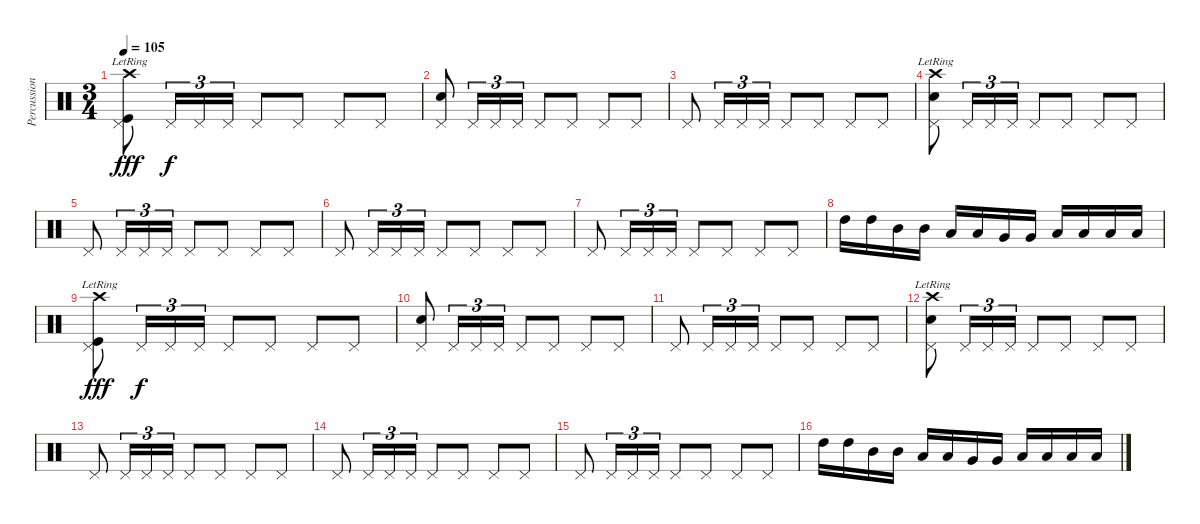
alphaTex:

\track ("Percussion" "Percussion") {instrument percussion}
\staff {score}
\articulation defaults
\ts (3 4)
\tempo 105
\clef neutral
\ks c
("Crash high (hit)"{lr} "Kick (hit)" "Pedal Hi-Hat (hit)").8{dy fff} "Pedal Hi-Hat (hit)".16{tu (3 2) dy f} "Pedal Hi-Hat (hit)".16{tu (3 2)} "Pedal Hi-Hat (hit)".16{tu (3 2)} "Pedal Hi-Hat (hit)".8 "Pedal Hi-Hat (hit)".8 "Pedal Hi-Hat (hit)".8 "Pedal Hi-Hat (hit)".8 |
("Snare (hit) 2" "Pedal Hi-Hat (hit)").8 "Pedal Hi-Hat (hit)".16{tu (3 2)} "Pedal Hi-Hat (hit)".16{tu (3 2)} "Pedal Hi-Hat (hit)".16{tu (3 2)} "Pedal Hi-Hat (hit)".8 "Pedal Hi-Hat (hit)".8 "Pedal Hi-Hat (hit)".8 "Pedal Hi-Hat (hit)".8 |
"Pedal Hi-Hat (hit)".8 "Pedal Hi-Hat (hit)".16{tu (3 2)} "Pedal Hi-Hat (hit)".16{tu (3 2)} "Pedal Hi-Hat (hit)".16{tu (3 2)} "Pedal Hi-Hat (hit)".8 "Pedal Hi-Hat (hit)".8 "Pedal Hi-Hat (hit)".8 "Pedal Hi-Hat (hit)".8 |
("Crash high (hit)"{lr} "Snare (hit) 2" "Pedal Hi-Hat (hit)").8 "Pedal Hi-Hat (hit)".16{tu (3 2)} "Pedal Hi-Hat (hit)".16{tu (3 2)} "Pedal Hi-Hat (hit)".16{tu (3 2)} "Pedal Hi-Hat (hit)".8 "Pedal Hi-Hat (hit)".8 "Pedal Hi-Hat (hit)".8 "Pedal Hi-Hat (hit)".8 |
"Pedal Hi-Hat (hit)".8 "Pedal Hi-Hat (hit)".16{tu (3 2)} "Pedal Hi-Hat (hit)".16{tu (3 2)} "Pedal Hi-Hat (hit)".16{tu (3 2)} "Pedal Hi-Hat (hit)".8 "Pedal Hi-Hat (hit)".8 "Pedal Hi-Hat (hit)".8 "Pedal Hi-Hat (hit)".8 |
"Pedal Hi-Hat (hit)".8 "Pedal Hi-Hat (hit)".16{tu (3 2)} "Pedal Hi-Hat (hit)".16{tu (3 2)} "Pedal Hi-Hat (hit)".16{tu (3 2)} "Pedal Hi-Hat (hit)".8 "Pedal Hi-Hat (hit)".8 "Pedal Hi-Hat (hit)".8 "Pedal Hi-Hat (hit)".8 |
"Pedal Hi-Hat (hit)".8 "Pedal Hi-Hat (hit)".16{tu (3 2)} "Pedal Hi-Hat (hit)".16{tu (3 2)} "Pedal Hi-Hat (hit)".16{tu (3 2)} "Pedal Hi-Hat (hit)".8 "Pedal Hi-Hat (hit)".8 "Pedal Hi-Hat (hit)".8 "Pedal Hi-Hat (hit)".8 |
"High Tom (hit)".16 "High Tom (hit)".16 "Mid Tom (hit)".16 "Mid Tom (hit)".16 "Low Tom (hit)".16 "Low Tom (hit)".16 "Very Low Tom (hit)".16 "Very Low Tom (hit)".16 "Low Floor Tom (hit)".16 "Low Floor Tom (hit)".16 "Low Floor Tom (hit)".16 "Low Floor Tom (hit)".16 |
("Crash high (hit)"{lr} "Kick (hit)" "Pedal Hi-Hat (hit)").8{dy fff} "Pedal Hi-Hat (hit)".16{tu (3 2) dy f} "Pedal Hi-Hat (hit)".16{tu (3 2)} "Pedal Hi-Hat (hit)".16{tu (3 2)} "Pedal Hi-Hat (hit)".8 "Pedal Hi-Hat (hit)".8 "Pedal Hi-Hat (hit)".8 "Pedal Hi-Hat (hit)".8 |
("Snare (hit) 2" "Pedal Hi-Hat (hit)").8 "Pedal Hi-Hat (hit)".16{tu (3 2)} "Pedal Hi-Hat (hit)".16{tu (3 2)} "Pedal Hi-Hat (hit)".16{tu (3 2)} "Pedal Hi-Hat (hit)".8 "Pedal Hi-Hat (hit)".8 "Pedal Hi-Hat (hit)".8 "Pedal Hi-Hat (hit)".8 |
"Pedal Hi-Hat (hit)".8 "Pedal Hi-Hat (hit)".16{tu (3 2)} "Pedal Hi-Hat (hit)".16{tu (3 2)} "Pedal Hi-Hat (hit)".16{tu (3 2)} "Pedal Hi-Hat (hit)".8 "Pedal Hi-Hat (hit)".8 "Pedal Hi-Hat (hit)".8 "Pedal Hi-Hat (hit)".8 |
("Crash high (hit)"{lr} "Snare (hit) 2" "Pedal Hi-Hat (hit)").8 "Pedal Hi-Hat (hit)".16{tu (3 2)} "Pedal Hi-Hat (hit)".16{tu (3 2)} "Pedal Hi-Hat (hit)".16{tu (3 2)} "Pedal Hi-Hat (hit)".8 "Pedal Hi-Hat (hit)".8 "Pedal Hi-Hat (hit)".8 "Pedal Hi-Hat (hit)".8 |
"Pedal Hi-Hat (hit)".8 "Pedal Hi-Hat (hit)".16{tu (3 2)} "Pedal Hi-Hat (hit)".16{tu (3 2)} "Pedal Hi-Hat (hit)".16{tu (3 2)} "Pedal Hi-Hat (hit)".8 "Pedal Hi-Hat (hit)".8 "Pedal Hi-Hat (hit)".8 "Pedal Hi-Hat (hit)".8 |
"Pedal Hi-Hat (hit)".8 "Pedal Hi-Hat (hit)".16{tu (3 2)} "Pedal Hi-Hat (hit)".16{tu (3 2)} "Pedal Hi-Hat (hit)".16{tu (3 2)} "Pedal Hi-Hat (hit)".8 "Pedal Hi-Hat (hit)".8 "Pedal Hi-Hat (hit)".8 "Pedal Hi-Hat (hit)".8 |
"Pedal Hi-Hat (hit)".8 "Pedal Hi-Hat (hit)".16{tu (3 2)} "Pedal Hi-Hat (hit)".16{tu (3 2)} "Pedal Hi-Hat (hit)".16{tu (3 2)} "Pedal Hi-Hat (hit)".8 "Pedal Hi-Hat (hit)".8 "Pedal Hi-Hat (hit)".8 "Pedal Hi-Hat (hit)".8 |
"High Tom (hit)".16 "High Tom (hit)".16 "Mid Tom (hit)".16 "Mid Tom (hit)".16 "Low Tom (hit)".16 "Low Tom (hit)".16 "Very Low Tom (hit)".16 "Very Low Tom (hit)".16 "Low Floor Tom (hit)".16 "Low Floor Tom (hit)".16 "Low Floor Tom (hit)".16 "Low Floor Tom (hit)".16
